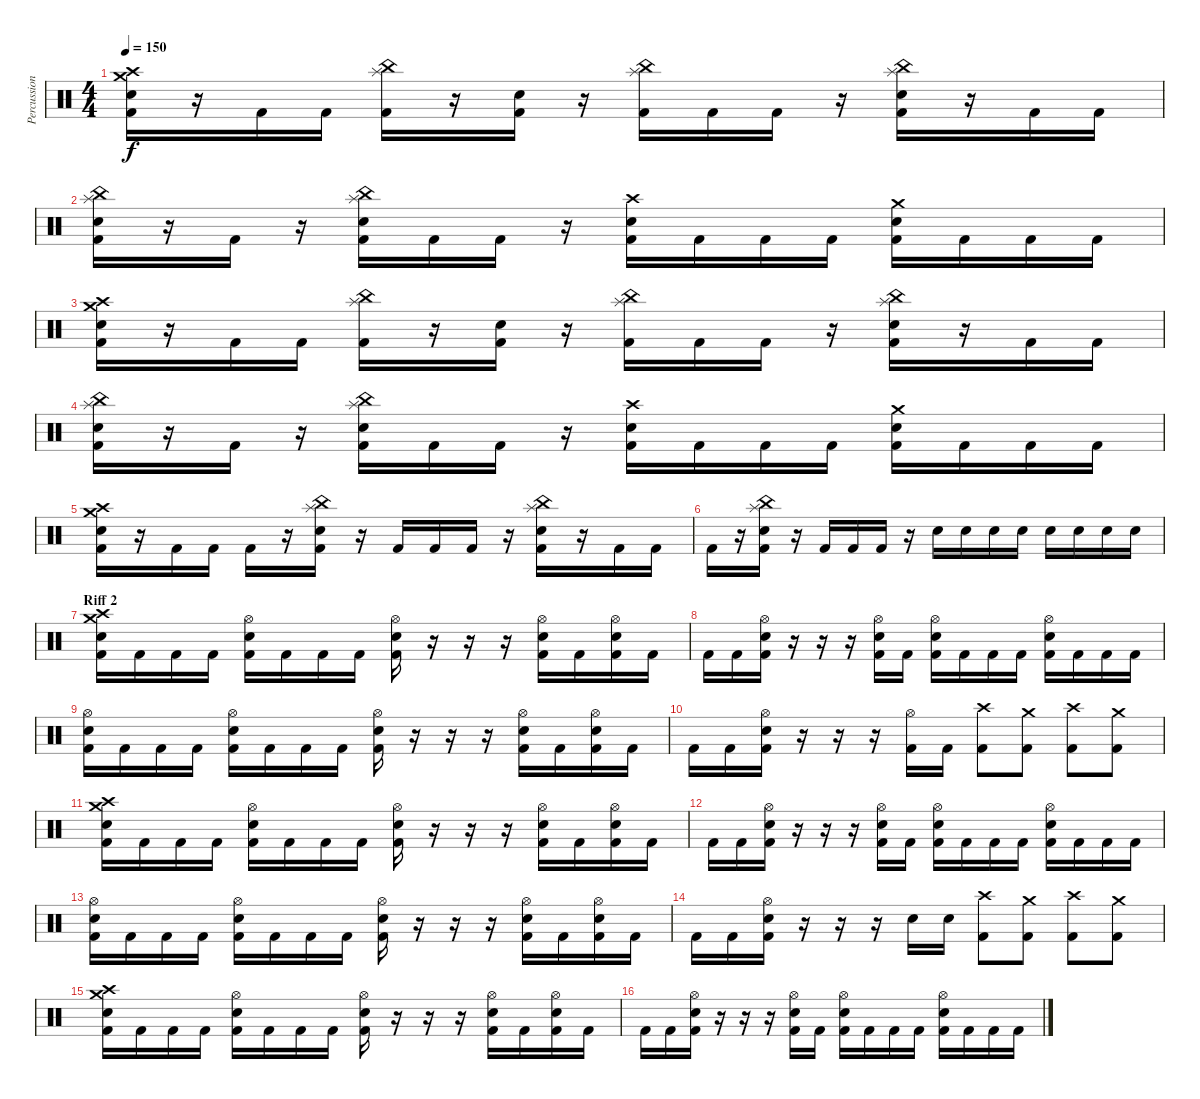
\track ("Percussion" "Percussion") {instrument percussion}
\staff {score}
\articulation defaults
\ts (4 4)
\tempo 150
\clef neutral
\ks c
("Crash medium (hit)" "Crash high (hit)" "Electric Snare (hit)" "Kick (hit) 2").16{dy f} r.16 "Kick (hit) 2".16 "Kick (hit) 2".16 ("Splash (hit)" "China (hit)" "Kick (hit) 2").16 r.16 ("Electric Snare (hit)" "Kick (hit) 2").16 r.16 ("Splash (hit)" "China (hit)" "Kick (hit) 2").16 "Kick (hit) 2".16 "Kick (hit) 2".16 r.16 ("Splash (hit)" "China (hit)" "Electric Snare (hit)" "Kick (hit) 2").16 r.16 "Kick (hit) 2".16 "Kick (hit) 2".16 |
("Splash (hit)" "China (hit)" "Electric Snare (hit)" "Kick (hit) 2").16 r.16 "Kick (hit) 2".16 r.16 ("Splash (hit)" "China (hit)" "Electric Snare (hit)" "Kick (hit) 2").16 "Kick (hit) 2".16 "Kick (hit) 2".16 r.16 ("Crash high (hit)" "Electric Snare (hit)" "Kick (hit) 2").16 "Kick (hit) 2".16 "Kick (hit) 2".16 "Kick (hit) 2".16 ("Crash medium (hit)" "Electric Snare (hit)" "Kick (hit) 2").16 "Kick (hit) 2".16 "Kick (hit) 2".16 "Kick (hit) 2".16 |
("Crash medium (hit)" "Crash high (hit)" "Electric Snare (hit)" "Kick (hit) 2").16 r.16 "Kick (hit) 2".16 "Kick (hit) 2".16 ("Splash (hit)" "China (hit)" "Kick (hit) 2").16 r.16 ("Electric Snare (hit)" "Kick (hit) 2").16 r.16 ("Splash (hit)" "China (hit)" "Kick (hit) 2").16 "Kick (hit) 2".16 "Kick (hit) 2".16 r.16 ("Splash (hit)" "China (hit)" "Electric Snare (hit)" "Kick (hit) 2").16 r.16 "Kick (hit) 2".16 "Kick (hit) 2".16 |
("Splash (hit)" "China (hit)" "Electric Snare (hit)" "Kick (hit) 2").16 r.16 "Kick (hit) 2".16 r.16 ("Splash (hit)" "China (hit)" "Electric Snare (hit)" "Kick (hit) 2").16 "Kick (hit) 2".16 "Kick (hit) 2".16 r.16 ("Crash high (hit)" "Electric Snare (hit)" "Kick (hit) 2").16 "Kick (hit) 2".16 "Kick (hit) 2".16 "Kick (hit) 2".16 ("Crash medium (hit)" "Electric Snare (hit)" "Kick (hit) 2").16 "Kick (hit) 2".16 "Kick (hit) 2".16 "Kick (hit) 2".16 |
("Crash medium (hit)" "Crash high (hit)" "Electric Snare (hit)" "Kick (hit) 2").16 r.16 "Kick (hit) 2".16 "Kick (hit) 2".16 "Kick (hit) 2".16 r.16 ("Splash (hit)" "China (hit)" "Electric Snare (hit)" "Kick (hit) 2").16 r.16 "Kick (hit) 2".16 "Kick (hit) 2".16 "Kick (hit) 2".16 r.16 ("Splash (hit)" "China (hit)" "Electric Snare (hit)" "Kick (hit) 2").16 r.16 "Kick (hit) 2".16 "Kick (hit) 2".16 |
"Kick (hit) 2".16 r.16 ("Splash (hit)" "China (hit)" "Electric Snare (hit)" "Kick (hit) 2").16 r.16 "Kick (hit) 2".16 "Kick (hit) 2".16 "Kick (hit) 2".16 r.16 "Electric Snare (hit)".16 "Electric Snare (hit)".16 "Electric Snare (hit)".16 "Electric Snare (hit)".16 "Electric Snare (hit)".16 "Electric Snare (hit)".16 "Electric Snare (hit)".16 "Electric Snare (hit)".16 |
\section ("" "Riff 2")
("Crash medium (hit)" "Crash high (hit)" "Electric Snare (hit)" "Kick (hit) 2").16 "Kick (hit) 2".16 "Kick (hit) 2".16 "Kick (hit) 2".16 ("Hi-Hat (open)" "Electric Snare (hit)" "Kick (hit) 2").16 "Kick (hit) 2".16 "Kick (hit) 2".16 "Kick (hit) 2".16 ("Hi-Hat (open)" "Electric Snare (hit)" "Kick (hit) 2").16 r.16 r.16 r.16 ("Hi-Hat (open)" "Electric Snare (hit)" "Kick (hit) 2").16 "Kick (hit) 2".16 ("Hi-Hat (open)" "Electric Snare (hit)" "Kick (hit) 2").16 "Kick (hit) 2".16 |
"Kick (hit) 2".16 "Kick (hit) 2".16 ("Hi-Hat (open)" "Electric Snare (hit)" "Kick (hit) 2").16 r.16 r.16 r.16 ("Hi-Hat (open)" "Electric Snare (hit)" "Kick (hit) 2").16 "Kick (hit) 2".16 ("Hi-Hat (open)" "Electric Snare (hit)" "Kick (hit) 2").16 "Kick (hit) 2".16 "Kick (hit) 2".16 "Kick (hit) 2".16 ("Hi-Hat (open)" "Electric Snare (hit)" "Kick (hit) 2").16 "Kick (hit) 2".16 "Kick (hit) 2".16 "Kick (hit) 2".16 |
("Hi-Hat (open)" "Electric Snare (hit)" "Kick (hit) 2").16 "Kick (hit) 2".16 "Kick (hit) 2".16 "Kick (hit) 2".16 ("Hi-Hat (open)" "Electric Snare (hit)" "Kick (hit) 2").16 "Kick (hit) 2".16 "Kick (hit) 2".16 "Kick (hit) 2".16 ("Hi-Hat (open)" "Electric Snare (hit)" "Kick (hit) 2").16 r.16 r.16 r.16 ("Hi-Hat (open)" "Electric Snare (hit)" "Kick (hit) 2").16 "Kick (hit) 2".16 ("Hi-Hat (open)" "Electric Snare (hit)" "Kick (hit) 2").16 "Kick (hit) 2".16 |
"Kick (hit) 2".16 "Kick (hit) 2".16 ("Hi-Hat (open)" "Electric Snare (hit)" "Kick (hit) 2").16 r.16 r.16 r.16 ("Hi-Hat (open)" "Kick (hit) 2").16 "Kick (hit) 2".16 ("Crash high (hit)" "Kick (hit) 2").8 ("Crash medium (hit)" "Kick (hit) 2").8 ("Crash high (hit)" "Kick (hit) 2").8 ("Crash medium (hit)" "Kick (hit) 2").8 |
("Crash medium (hit)" "Crash high (hit)" "Electric Snare (hit)" "Kick (hit) 2").16 "Kick (hit) 2".16 "Kick (hit) 2".16 "Kick (hit) 2".16 ("Hi-Hat (open)" "Electric Snare (hit)" "Kick (hit) 2").16 "Kick (hit) 2".16 "Kick (hit) 2".16 "Kick (hit) 2".16 ("Hi-Hat (open)" "Electric Snare (hit)" "Kick (hit) 2").16 r.16 r.16 r.16 ("Hi-Hat (open)" "Electric Snare (hit)" "Kick (hit) 2").16 "Kick (hit) 2".16 ("Hi-Hat (open)" "Electric Snare (hit)" "Kick (hit) 2").16 "Kick (hit) 2".16 |
"Kick (hit) 2".16 "Kick (hit) 2".16 ("Hi-Hat (open)" "Electric Snare (hit)" "Kick (hit) 2").16 r.16 r.16 r.16 ("Hi-Hat (open)" "Electric Snare (hit)" "Kick (hit) 2").16 "Kick (hit) 2".16 ("Hi-Hat (open)" "Electric Snare (hit)" "Kick (hit) 2").16 "Kick (hit) 2".16 "Kick (hit) 2".16 "Kick (hit) 2".16 ("Hi-Hat (open)" "Electric Snare (hit)" "Kick (hit) 2").16 "Kick (hit) 2".16 "Kick (hit) 2".16 "Kick (hit) 2".16 |
("Hi-Hat (open)" "Electric Snare (hit)" "Kick (hit) 2").16 "Kick (hit) 2".16 "Kick (hit) 2".16 "Kick (hit) 2".16 ("Hi-Hat (open)" "Electric Snare (hit)" "Kick (hit) 2").16 "Kick (hit) 2".16 "Kick (hit) 2".16 "Kick (hit) 2".16 ("Hi-Hat (open)" "Electric Snare (hit)" "Kick (hit) 2").16 r.16 r.16 r.16 ("Hi-Hat (open)" "Electric Snare (hit)" "Kick (hit) 2").16 "Kick (hit) 2".16 ("Hi-Hat (open)" "Electric Snare (hit)" "Kick (hit) 2").16 "Kick (hit) 2".16 |
"Kick (hit) 2".16 "Kick (hit) 2".16 ("Hi-Hat (open)" "Electric Snare (hit)" "Kick (hit) 2").16 r.16 r.16 r.16 "Electric Snare (hit)".16 "Electric Snare (hit)".16 ("Crash high (hit)" "Kick (hit) 2").8 ("Crash medium (hit)" "Kick (hit) 2").8 ("Crash high (hit)" "Kick (hit) 2").8 ("Crash medium (hit)" "Kick (hit) 2").8 |
("Crash medium (hit)" "Crash high (hit)" "Electric Snare (hit)" "Kick (hit) 2").16 "Kick (hit) 2".16 "Kick (hit) 2".16 "Kick (hit) 2".16 ("Hi-Hat (open)" "Electric Snare (hit)" "Kick (hit) 2").16 "Kick (hit) 2".16 "Kick (hit) 2".16 "Kick (hit) 2".16 ("Hi-Hat (open)" "Electric Snare (hit)" "Kick (hit) 2").16 r.16 r.16 r.16 ("Hi-Hat (open)" "Electric Snare (hit)" "Kick (hit) 2").16 "Kick (hit) 2".16 ("Hi-Hat (open)" "Electric Snare (hit)" "Kick (hit) 2").16 "Kick (hit) 2".16 |
"Kick (hit) 2".16 "Kick (hit) 2".16 ("Hi-Hat (open)" "Electric Snare (hit)" "Kick (hit) 2").16 r.16 r.16 r.16 ("Hi-Hat (open)" "Electric Snare (hit)" "Kick (hit) 2").16 "Kick (hit) 2".16 ("Hi-Hat (open)" "Electric Snare (hit)" "Kick (hit) 2").16 "Kick (hit) 2".16 "Kick (hit) 2".16 "Kick (hit) 2".16 ("Hi-Hat (open)" "Electric Snare (hit)" "Kick (hit) 2").16 "Kick (hit) 2".16 "Kick (hit) 2".16 "Kick (hit) 2".16
